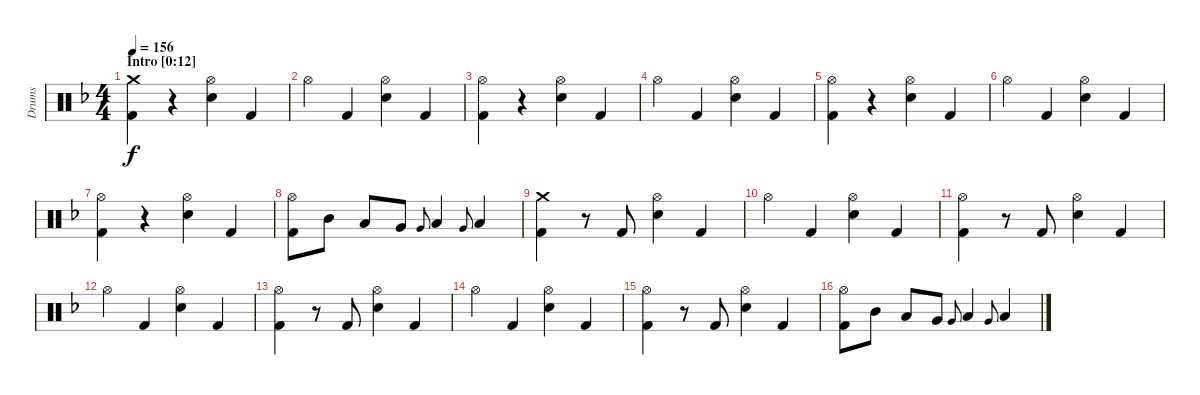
\track ("Drums" "Drums") {instrument percussion}
\staff {score}
\articulation defaults
\ts (4 4)
\section ("" "Intro [0:12]")
\tempo 156
\clef neutral
\ks dminor
("Crash medium (hit)" "Kick (hit) 2").4{dy f} r.4 ("Hi-Hat (open)" "Snare (hit) 2").4 "Kick (hit) 2".4 |
"Hi-Hat (open)".4 "Kick (hit) 2".4 ("Hi-Hat (open)" "Snare (hit) 2").4 "Kick (hit) 2".4 |
("Hi-Hat (open)" "Kick (hit) 2").4 r.4 ("Hi-Hat (open)" "Snare (hit) 2").4 "Kick (hit) 2".4 |
"Hi-Hat (open)".4 "Kick (hit) 2".4 ("Hi-Hat (open)" "Snare (hit) 2").4 "Kick (hit) 2".4 |
("Hi-Hat (open)" "Kick (hit) 2").4 r.4 ("Hi-Hat (open)" "Snare (hit) 2").4 "Kick (hit) 2".4 |
"Hi-Hat (open)".4 "Kick (hit) 2".4 ("Hi-Hat (open)" "Snare (hit) 2").4 "Kick (hit) 2".4 |
("Hi-Hat (open)" "Kick (hit) 2").4 r.4 ("Hi-Hat (open)" "Snare (hit) 2").4 "Kick (hit) 2".4 |
("Hi-Hat (open)" "Kick (hit) 2").8 "Mid Tom (hit)".8 "Low Tom (hit)".8 "Very Low Tom (hit)".8 "Very Low Tom (hit)".8{gr onbeat} "Low Floor Tom (hit)".4 "Very Low Tom (hit)".8{gr onbeat} "Low Floor Tom (hit)".4 |
("Crash medium (hit)" "Kick (hit) 2").4 r.8 "Kick (hit) 2".8 ("Hi-Hat (open)" "Snare (hit) 2").4 "Kick (hit) 2".4 |
"Hi-Hat (open)".4 "Kick (hit) 2".4 ("Hi-Hat (open)" "Snare (hit) 2").4 "Kick (hit) 2".4 |
("Hi-Hat (open)" "Kick (hit) 2").4 r.8 "Kick (hit) 2".8 ("Hi-Hat (open)" "Snare (hit) 2").4 "Kick (hit) 2".4 |
"Hi-Hat (open)".4 "Kick (hit) 2".4 ("Hi-Hat (open)" "Snare (hit) 2").4 "Kick (hit) 2".4 |
("Hi-Hat (open)" "Kick (hit) 2").4 r.8 "Kick (hit) 2".8 ("Hi-Hat (open)" "Snare (hit) 2").4 "Kick (hit) 2".4 |
"Hi-Hat (open)".4 "Kick (hit) 2".4 ("Hi-Hat (open)" "Snare (hit) 2").4 "Kick (hit) 2".4 |
("Hi-Hat (open)" "Kick (hit) 2").4 r.8 "Kick (hit) 2".8 ("Hi-Hat (open)" "Snare (hit) 2").4 "Kick (hit) 2".4 |
("Hi-Hat (open)" "Kick (hit) 2").8 "Mid Tom (hit)".8 "Low Tom (hit)".8 "Very Low Tom (hit)".8 "Very Low Tom (hit)".8{gr onbeat} "Low Floor Tom (hit)".4 "Very Low Tom (hit)".8{gr onbeat} "Low Floor Tom (hit)".4
